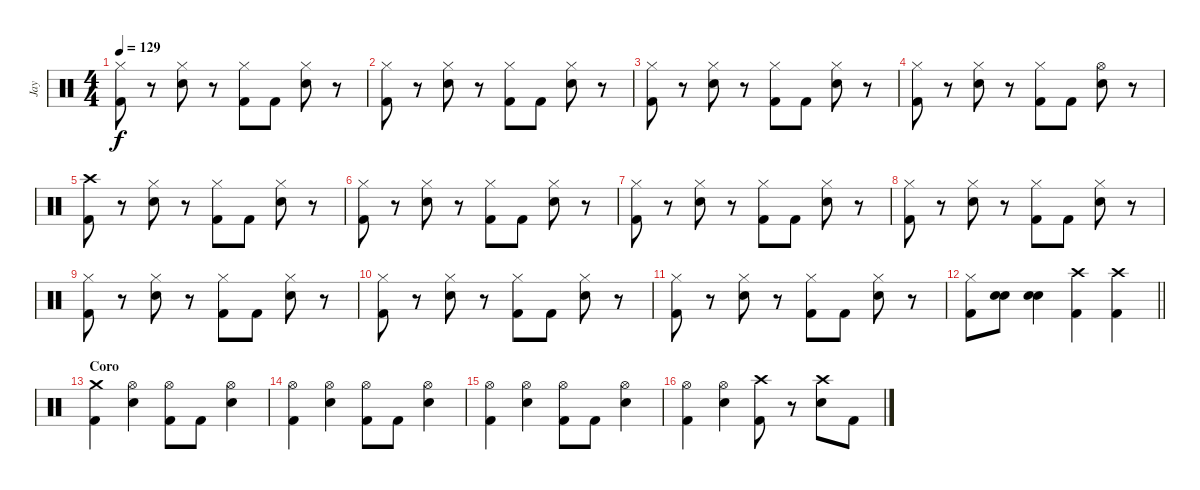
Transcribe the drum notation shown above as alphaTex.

\track ("Jay" "Jay") {instrument percussion}
\staff {score}
\articulation defaults
\ts (4 4)
\tempo 129
\clef neutral
\ks c
("Hi-Hat (closed)" "Kick (hit) 2").8{dy f} r.8 ("Hi-Hat (closed)" "Electric Snare (hit)").8 r.8 ("Hi-Hat (closed)" "Kick (hit) 2").8 "Kick (hit) 2".8 ("Hi-Hat (closed)" "Electric Snare (hit)").8 r.8 |
("Hi-Hat (closed)" "Kick (hit) 2").8 r.8 ("Hi-Hat (closed)" "Electric Snare (hit)").8 r.8 ("Hi-Hat (closed)" "Kick (hit) 2").8 "Kick (hit) 2".8 ("Hi-Hat (closed)" "Electric Snare (hit)").8 r.8 |
("Hi-Hat (closed)" "Kick (hit) 2").8 r.8 ("Hi-Hat (closed)" "Electric Snare (hit)").8 r.8 ("Hi-Hat (closed)" "Kick (hit) 2").8 "Kick (hit) 2".8 ("Hi-Hat (closed)" "Electric Snare (hit)").8 r.8 |
("Hi-Hat (closed)" "Kick (hit) 2").8 r.8 ("Hi-Hat (closed)" "Electric Snare (hit)").8 r.8 ("Hi-Hat (closed)" "Kick (hit) 2").8 "Kick (hit) 2".8 ("Hi-Hat (open)" "Electric Snare (hit)").8 r.8 |
("Crash high (hit)" "Kick (hit) 2").8 r.8 ("Hi-Hat (closed)" "Electric Snare (hit)").8 r.8 ("Hi-Hat (closed)" "Kick (hit) 2").8 "Kick (hit) 2".8 ("Hi-Hat (closed)" "Electric Snare (hit)").8 r.8 |
("Hi-Hat (closed)" "Kick (hit) 2").8 r.8 ("Hi-Hat (closed)" "Electric Snare (hit)").8 r.8 ("Hi-Hat (closed)" "Kick (hit) 2").8 "Kick (hit) 2".8 ("Hi-Hat (closed)" "Electric Snare (hit)").8 r.8 |
("Hi-Hat (closed)" "Kick (hit) 2").8 r.8 ("Hi-Hat (closed)" "Electric Snare (hit)").8 r.8 ("Hi-Hat (closed)" "Kick (hit) 2").8 "Kick (hit) 2".8 ("Hi-Hat (closed)" "Electric Snare (hit)").8 r.8 |
("Hi-Hat (closed)" "Kick (hit) 2").8 r.8 ("Hi-Hat (closed)" "Electric Snare (hit)").8 r.8 ("Hi-Hat (closed)" "Kick (hit) 2").8 "Kick (hit) 2".8 ("Hi-Hat (closed)" "Electric Snare (hit)").8 r.8 |
("Hi-Hat (closed)" "Kick (hit) 2").8 r.8 ("Hi-Hat (closed)" "Electric Snare (hit)").8 r.8 ("Hi-Hat (closed)" "Kick (hit) 2").8 "Kick (hit) 2".8 ("Hi-Hat (closed)" "Electric Snare (hit)").8 r.8 |
("Hi-Hat (closed)" "Kick (hit) 2").8 r.8 ("Hi-Hat (closed)" "Electric Snare (hit)").8 r.8 ("Hi-Hat (closed)" "Kick (hit) 2").8 "Kick (hit) 2".8 ("Hi-Hat (closed)" "Electric Snare (hit)").8 r.8 |
("Hi-Hat (closed)" "Kick (hit) 2").8 r.8 ("Hi-Hat (closed)" "Electric Snare (hit)").8 r.8 ("Hi-Hat (closed)" "Kick (hit) 2").8 "Kick (hit) 2".8 ("Hi-Hat (closed)" "Electric Snare (hit)").8 r.8 |
\barLineRight lightlight
("Hi-Hat (closed)" "Kick (hit) 2").8 ("Electric Snare (hit)" "Electric Snare (hit)").8{bd 60} ("Electric Snare (hit)" "Electric Snare (hit)").4{bd 60} ("Crash high (hit)" "Kick (hit) 2").4 ("Crash high (hit)" "Kick (hit) 2").4 |
\section ("" "Coro")
("Crash medium (hit)" "Kick (hit) 2").4 ("Hi-Hat (open)" "Electric Snare (hit)").4 ("Hi-Hat (open)" "Kick (hit) 2").8 "Kick (hit) 2".8 ("Hi-Hat (open)" "Electric Snare (hit)").4 |
("Hi-Hat (open)" "Kick (hit) 2").4 ("Hi-Hat (open)" "Electric Snare (hit)").4 ("Hi-Hat (open)" "Kick (hit) 2").8 "Kick (hit) 2".8 ("Hi-Hat (open)" "Electric Snare (hit)").4 |
("Hi-Hat (open)" "Kick (hit) 2").4 ("Hi-Hat (open)" "Electric Snare (hit)").4 ("Hi-Hat (open)" "Kick (hit) 2").8 "Kick (hit) 2".8 ("Hi-Hat (open)" "Electric Snare (hit)").4 |
("Hi-Hat (open)" "Kick (hit) 2").4 ("Hi-Hat (open)" "Electric Snare (hit)").4 ("Crash high (hit)" "Kick (hit) 2").8 r.8 ("Crash high (hit)" "Electric Snare (hit)").8 "Kick (hit) 2".8
